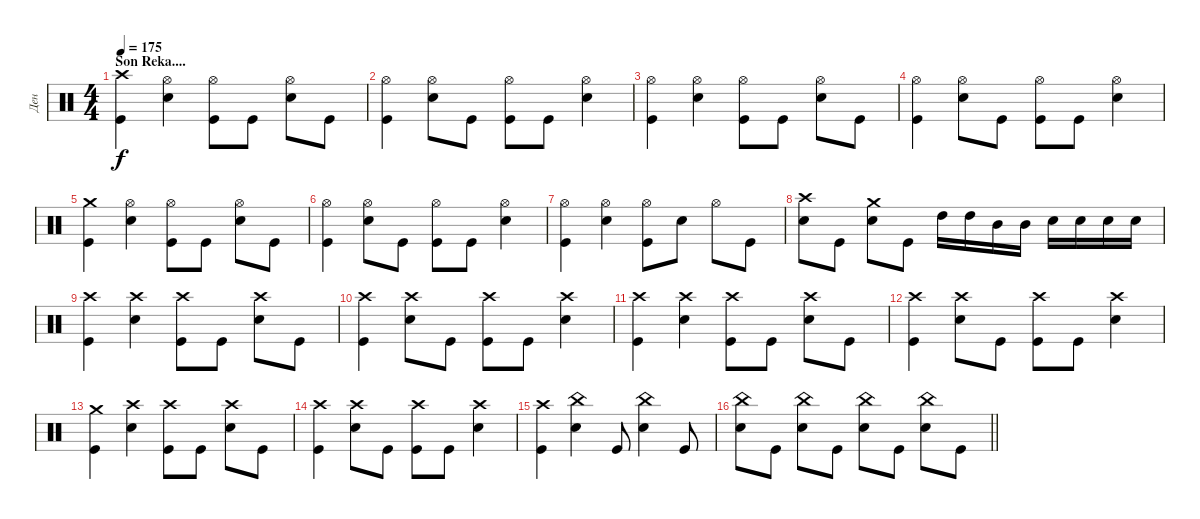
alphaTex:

\track ("Ден" "Ден") {instrument percussion}
\staff {score}
\articulation defaults
\ts (4 4)
\section ("" "Son Reka....")
\tempo 175
\clef neutral
\ks c
("Crash high (hit)" "Kick (hit)").4{dy f} ("Hi-Hat (open)" "Snare (hit) 2").4 ("Hi-Hat (open)" "Kick (hit)").8 "Kick (hit)".8 ("Hi-Hat (open)" "Snare (hit) 2").8 "Kick (hit)".8 |
("Hi-Hat (open)" "Kick (hit)").4 ("Hi-Hat (open)" "Snare (hit) 2").8 "Kick (hit)".8 ("Hi-Hat (open)" "Kick (hit)").8 "Kick (hit)".8 ("Hi-Hat (open)" "Snare (hit) 2").4 |
("Hi-Hat (open)" "Kick (hit)").4 ("Hi-Hat (open)" "Snare (hit) 2").4 ("Hi-Hat (open)" "Kick (hit)").8 "Kick (hit)".8 ("Hi-Hat (open)" "Snare (hit) 2").8 "Kick (hit)".8 |
("Hi-Hat (open)" "Kick (hit)").4 ("Hi-Hat (open)" "Snare (hit) 2").8 "Kick (hit)".8 ("Hi-Hat (open)" "Kick (hit)").8 "Kick (hit)".8 ("Hi-Hat (open)" "Snare (hit) 2").4 |
("Crash medium (hit)" "Kick (hit)").4 ("Hi-Hat (open)" "Snare (hit) 2").4 ("Hi-Hat (open)" "Kick (hit)").8 "Kick (hit)".8 ("Hi-Hat (open)" "Snare (hit) 2").8 "Kick (hit)".8 |
("Hi-Hat (open)" "Kick (hit)").4 ("Hi-Hat (open)" "Snare (hit) 2").8 "Kick (hit)".8 ("Hi-Hat (open)" "Kick (hit)").8 "Kick (hit)".8 ("Hi-Hat (open)" "Snare (hit) 2").4 |
("Hi-Hat (open)" "Kick (hit)").4 ("Hi-Hat (open)" "Snare (hit) 2").4 ("Hi-Hat (open)" "Kick (hit)").8 "Snare (hit) 2".8 "Hi-Hat (open)".8 "Kick (hit)".8 |
("Crash high (hit)" "Snare (hit) 2").8 "Kick (hit)".8 ("Crash medium (hit)" "Snare (hit) 2").8 "Kick (hit)".8 "High Tom (hit)".16 "High Tom (hit)".16 "Mid Tom (hit)".16 "Mid Tom (hit)".16 "Snare (hit) 2".16 "Snare (hit) 2".16 "Snare (hit) 2".16 "Snare (hit) 2".16 |
("Crash high (hit)" "Kick (hit)").4 ("Crash high (hit)" "Snare (hit) 2").4 ("Crash high (hit)" "Kick (hit)").8 "Kick (hit)".8 ("Crash high (hit)" "Snare (hit) 2").8 "Kick (hit)".8 |
("Crash high (hit)" "Kick (hit)").4 ("Crash high (hit)" "Snare (hit) 2").8 "Kick (hit)".8 ("Crash high (hit)" "Kick (hit)").8 "Kick (hit)".8 ("Crash high (hit)" "Snare (hit) 2").4 |
("Crash high (hit)" "Kick (hit)").4 ("Crash high (hit)" "Snare (hit) 2").4 ("Crash high (hit)" "Kick (hit)").8 "Kick (hit)".8 ("Crash high (hit)" "Snare (hit) 2").8 "Kick (hit)".8 |
("Crash high (hit)" "Kick (hit)").4 ("Crash high (hit)" "Snare (hit) 2").8 "Kick (hit)".8 ("Crash high (hit)" "Kick (hit)").8 "Kick (hit)".8 ("Crash high (hit)" "Snare (hit) 2").4 |
("Crash medium (hit)" "Kick (hit)").4 ("Crash high (hit)" "Snare (hit) 2").4 ("Crash high (hit)" "Kick (hit)").8 "Kick (hit)".8 ("Crash high (hit)" "Snare (hit) 2").8 "Kick (hit)".8 |
("Crash high (hit)" "Kick (hit)").4 ("Crash high (hit)" "Snare (hit) 2").8 "Kick (hit)".8 ("Crash high (hit)" "Kick (hit)").8 "Kick (hit)".8 ("Crash high (hit)" "Snare (hit) 2").4 |
("Crash high (hit)" "Kick (hit)").4 ("China (hit)" "Snare (hit) 2").4 "Kick (hit)".8 ("China (hit)" "Snare (hit) 2").4 "Kick (hit)".8 |
\barLineRight lightlight
("China (hit)" "Snare (hit) 2").8 "Kick (hit)".8 ("China (hit)" "Snare (hit) 2").8 "Kick (hit)".8 ("China (hit)" "Snare (hit) 2").8 "Kick (hit)".8 ("China (hit)" "Snare (hit) 2").8 "Kick (hit)".8
